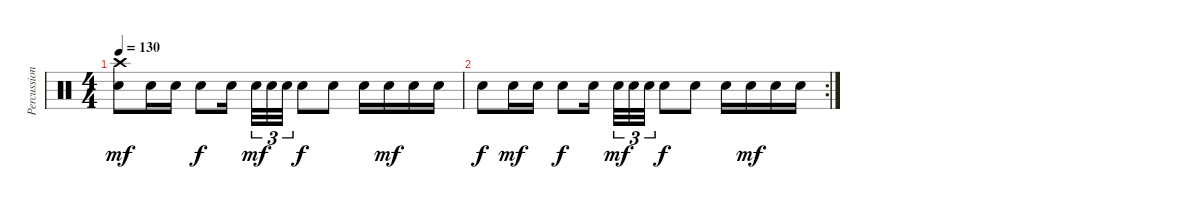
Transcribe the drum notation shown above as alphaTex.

\track ("Percussion" "Percussion") {instrument percussion}
\staff {score}
\articulation defaults
\ts (4 4)
\tempo 130
\clef neutral
\ks c
("Crash high (hit)" "Electric Snare (hit)").8{dy mf} "Electric Snare (hit)".16 "Electric Snare (hit)".16 "Electric Snare (hit)".8{dy f} "Electric Snare (hit)".16{beam splitsecondary} "Electric Snare (hit)".32{tu (3 2) dy mf} "Electric Snare (hit)".32{tu (3 2)} "Electric Snare (hit)".32{tu (3 2)} "Electric Snare (hit)".8{dy f} "Electric Snare (hit)".8 "Electric Snare (hit)".16 "Electric Snare (hit)".16{dy mf} "Electric Snare (hit)".16 "Electric Snare (hit)".16 |
\rc 2 "Electric Snare (hit)".8{dy f} "Electric Snare (hit)".16{dy mf} "Electric Snare (hit)".16 "Electric Snare (hit)".8{dy f} "Electric Snare (hit)".16{beam splitsecondary} "Electric Snare (hit)".32{tu (3 2) dy mf} "Electric Snare (hit)".32{tu (3 2)} "Electric Snare (hit)".32{tu (3 2)} "Electric Snare (hit)".8{dy f} "Electric Snare (hit)".8 "Electric Snare (hit)".16 "Electric Snare (hit)".16{dy mf} "Electric Snare (hit)".16 "Electric Snare (hit)".16
